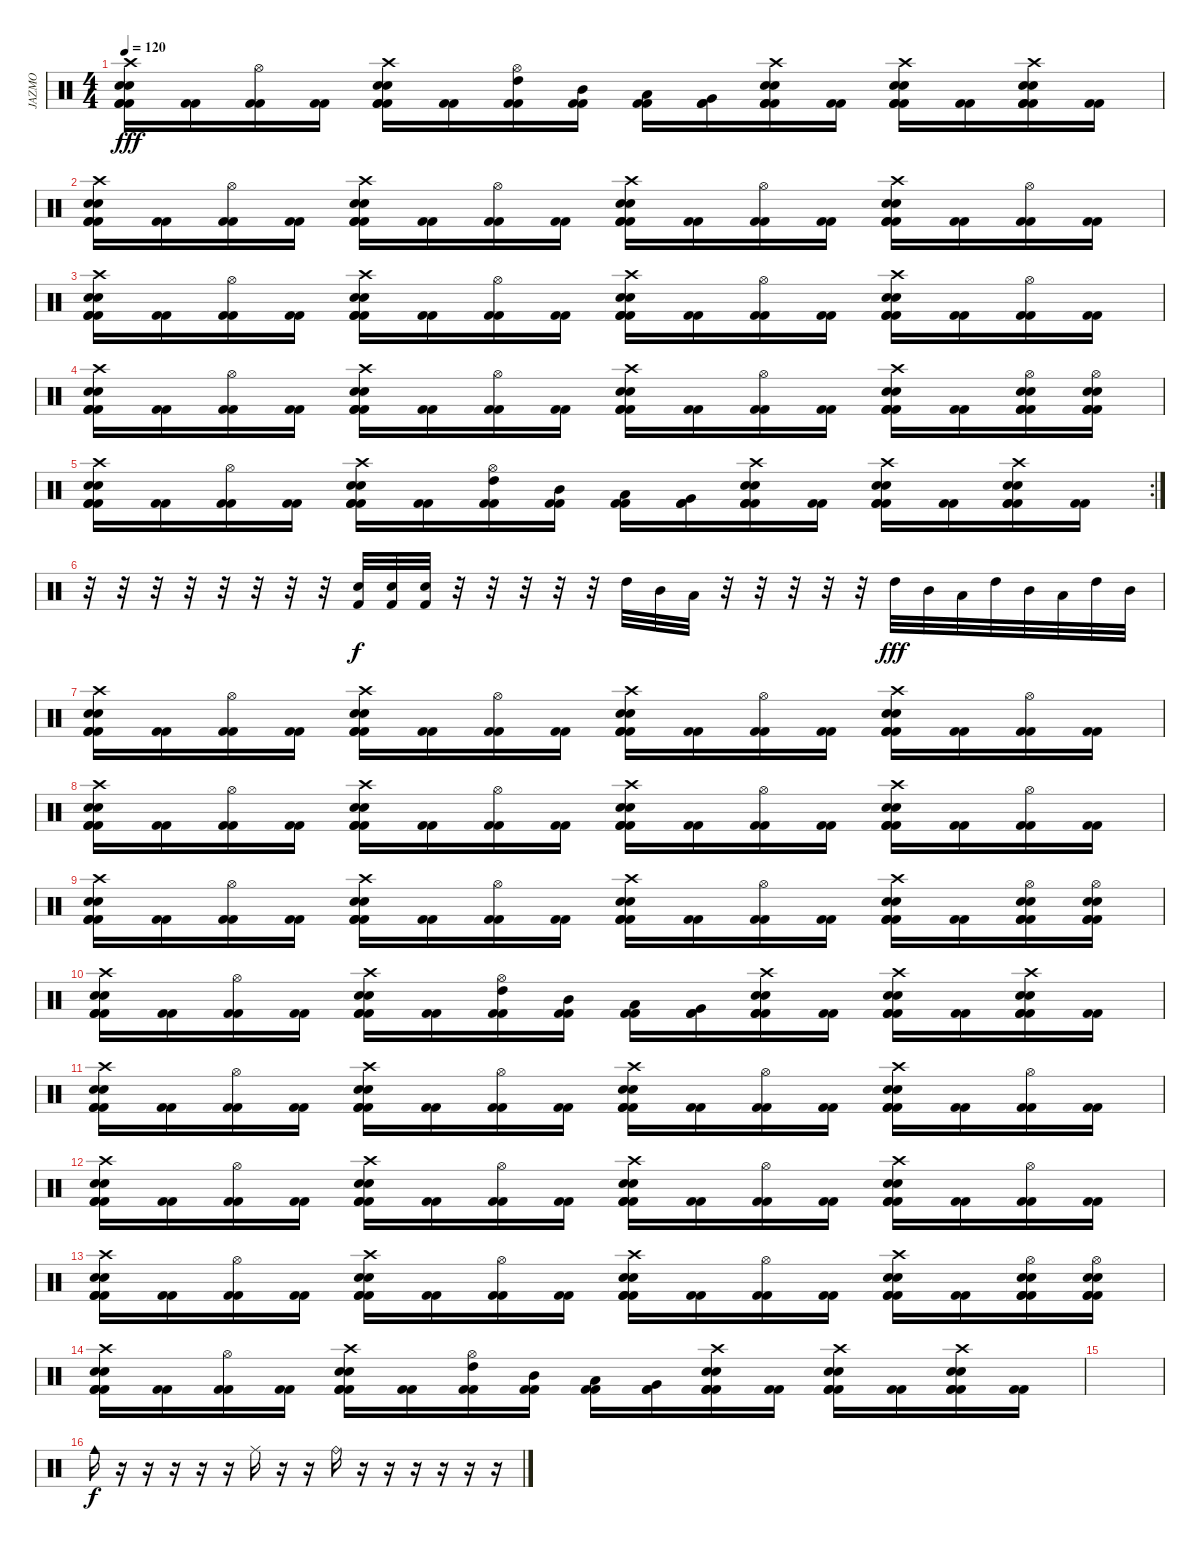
\track ("JAZMO" "JAZMO") {instrument percussion}
\staff {score}
\articulation defaults
\ts (4 4)
\tempo 120
\clef neutral
\ks c
("Electric Snare (hit)" "Kick (hit) 2" "Crash high (hit)" "Electric Snare (hit)" "Kick (hit) 2" "Kick (hit) 2").16{dy fff} ("Kick (hit) 2" "Kick (hit) 2").16 ("Hi-Hat (open)" "Kick (hit) 2" "Kick (hit) 2").16 ("Kick (hit) 2" "Kick (hit) 2").16 ("Electric Snare (hit)" "Kick (hit) 2" "Crash high (hit)" "Electric Snare (hit)" "Kick (hit) 2" "Kick (hit) 2").16 ("Kick (hit) 2" "Kick (hit) 2").16 ("High Tom (hit)" "Hi-Hat (open)" "Kick (hit) 2" "Kick (hit) 2").16 ("Mid Tom (hit)" "Kick (hit) 2" "Kick (hit) 2").16 ("Low Tom (hit)" "Kick (hit) 2" "Kick (hit) 2").16 ("Very Low Tom (hit)" "Kick (hit) 2" "Kick (hit) 2").16 ("Electric Snare (hit)" "Kick (hit) 2" "Crash high (hit)" "Electric Snare (hit)" "Kick (hit) 2" "Kick (hit) 2").16 ("Kick (hit) 2" "Kick (hit) 2").16 ("Electric Snare (hit)" "Kick (hit) 2" "Crash high (hit)" "Electric Snare (hit)" "Kick (hit) 2" "Kick (hit) 2").16 ("Kick (hit) 2" "Kick (hit) 2").16 ("Electric Snare (hit)" "Kick (hit) 2" "Crash high (hit)" "Electric Snare (hit)" "Kick (hit) 2" "Kick (hit) 2").16 ("Kick (hit) 2" "Kick (hit) 2").16 |
("Electric Snare (hit)" "Kick (hit) 2" "Crash high (hit)" "Electric Snare (hit)" "Kick (hit) 2" "Kick (hit) 2").16 ("Kick (hit) 2" "Kick (hit) 2").16 ("Hi-Hat (open)" "Kick (hit) 2" "Kick (hit) 2").16 ("Kick (hit) 2" "Kick (hit) 2").16 ("Electric Snare (hit)" "Kick (hit) 2" "Crash high (hit)" "Electric Snare (hit)" "Kick (hit) 2" "Kick (hit) 2").16 ("Kick (hit) 2" "Kick (hit) 2").16 ("Hi-Hat (open)" "Kick (hit) 2" "Kick (hit) 2").16 ("Kick (hit) 2" "Kick (hit) 2").16 ("Electric Snare (hit)" "Kick (hit) 2" "Crash high (hit)" "Electric Snare (hit)" "Kick (hit) 2" "Kick (hit) 2").16 ("Kick (hit) 2" "Kick (hit) 2").16 ("Hi-Hat (open)" "Kick (hit) 2" "Kick (hit) 2").16 ("Kick (hit) 2" "Kick (hit) 2").16 ("Electric Snare (hit)" "Kick (hit) 2" "Crash high (hit)" "Electric Snare (hit)" "Kick (hit) 2" "Kick (hit) 2").16 ("Kick (hit) 2" "Kick (hit) 2").16 ("Hi-Hat (open)" "Kick (hit) 2" "Kick (hit) 2").16 ("Kick (hit) 2" "Kick (hit) 2").16 |
("Electric Snare (hit)" "Kick (hit) 2" "Crash high (hit)" "Electric Snare (hit)" "Kick (hit) 2" "Kick (hit) 2").16 ("Kick (hit) 2" "Kick (hit) 2").16 ("Hi-Hat (open)" "Kick (hit) 2" "Kick (hit) 2").16 ("Kick (hit) 2" "Kick (hit) 2").16 ("Electric Snare (hit)" "Kick (hit) 2" "Crash high (hit)" "Electric Snare (hit)" "Kick (hit) 2" "Kick (hit) 2").16 ("Kick (hit) 2" "Kick (hit) 2").16 ("Hi-Hat (open)" "Kick (hit) 2" "Kick (hit) 2").16 ("Kick (hit) 2" "Kick (hit) 2").16 ("Electric Snare (hit)" "Kick (hit) 2" "Crash high (hit)" "Electric Snare (hit)" "Kick (hit) 2" "Kick (hit) 2").16 ("Kick (hit) 2" "Kick (hit) 2").16 ("Hi-Hat (open)" "Kick (hit) 2" "Kick (hit) 2").16 ("Kick (hit) 2" "Kick (hit) 2").16 ("Electric Snare (hit)" "Kick (hit) 2" "Crash high (hit)" "Electric Snare (hit)" "Kick (hit) 2" "Kick (hit) 2").16 ("Kick (hit) 2" "Kick (hit) 2").16 ("Hi-Hat (open)" "Kick (hit) 2" "Kick (hit) 2").16 ("Kick (hit) 2" "Kick (hit) 2").16 |
("Electric Snare (hit)" "Kick (hit) 2" "Crash high (hit)" "Electric Snare (hit)" "Kick (hit) 2" "Kick (hit) 2").16 ("Kick (hit) 2" "Kick (hit) 2").16 ("Hi-Hat (open)" "Kick (hit) 2" "Kick (hit) 2").16 ("Kick (hit) 2" "Kick (hit) 2").16 ("Electric Snare (hit)" "Kick (hit) 2" "Crash high (hit)" "Electric Snare (hit)" "Kick (hit) 2" "Kick (hit) 2").16 ("Kick (hit) 2" "Kick (hit) 2").16 ("Hi-Hat (open)" "Kick (hit) 2" "Kick (hit) 2").16 ("Kick (hit) 2" "Kick (hit) 2").16 ("Electric Snare (hit)" "Kick (hit) 2" "Crash high (hit)" "Electric Snare (hit)" "Kick (hit) 2" "Kick (hit) 2").16 ("Kick (hit) 2" "Kick (hit) 2").16 ("Hi-Hat (open)" "Kick (hit) 2" "Kick (hit) 2").16 ("Kick (hit) 2" "Kick (hit) 2").16 ("Electric Snare (hit)" "Kick (hit) 2" "Crash high (hit)" "Electric Snare (hit)" "Kick (hit) 2" "Kick (hit) 2").16 ("Kick (hit) 2" "Kick (hit) 2").16 ("Electric Snare (hit)" "Kick (hit) 2" "Hi-Hat (open)" "Electric Snare (hit)" "Kick (hit) 2" "Kick (hit) 2").16 ("Electric Snare (hit)" "Kick (hit) 2" "Hi-Hat (open)" "Electric Snare (hit)" "Kick (hit) 2" "Kick (hit) 2").16 |
\rc 2
("Electric Snare (hit)" "Kick (hit) 2" "Crash high (hit)" "Electric Snare (hit)" "Kick (hit) 2" "Kick (hit) 2").16 ("Kick (hit) 2" "Kick (hit) 2").16 ("Hi-Hat (open)" "Kick (hit) 2" "Kick (hit) 2").16 ("Kick (hit) 2" "Kick (hit) 2").16 ("Electric Snare (hit)" "Kick (hit) 2" "Crash high (hit)" "Electric Snare (hit)" "Kick (hit) 2" "Kick (hit) 2").16 ("Kick (hit) 2" "Kick (hit) 2").16 ("High Tom (hit)" "Hi-Hat (open)" "Kick (hit) 2" "Kick (hit) 2").16 ("Mid Tom (hit)" "Kick (hit) 2" "Kick (hit) 2").16 ("Low Tom (hit)" "Kick (hit) 2" "Kick (hit) 2").16 ("Very Low Tom (hit)" "Kick (hit) 2" "Kick (hit) 2").16 ("Electric Snare (hit)" "Kick (hit) 2" "Crash high (hit)" "Electric Snare (hit)" "Kick (hit) 2" "Kick (hit) 2").16 ("Kick (hit) 2" "Kick (hit) 2").16 ("Electric Snare (hit)" "Kick (hit) 2" "Crash high (hit)" "Electric Snare (hit)" "Kick (hit) 2" "Kick (hit) 2").16 ("Kick (hit) 2" "Kick (hit) 2").16 ("Electric Snare (hit)" "Kick (hit) 2" "Crash high (hit)" "Electric Snare (hit)" "Kick (hit) 2" "Kick (hit) 2").16 ("Kick (hit) 2" "Kick (hit) 2").16 |
r.32 r.32 r.32 r.32 r.32 r.32 r.32 r.32 ("Electric Snare (hit)" "Kick (hit) 2").32{dy f} ("Electric Snare (hit)" "Kick (hit) 2").32 ("Electric Snare (hit)" "Kick (hit) 2").32 r.32 r.32 r.32 r.32 r.32 "High Tom (hit)".32 "Mid Tom (hit)".32 "Low Tom (hit)".32 r.32 r.32 r.32 r.32 r.32 "High Tom (hit)".32{dy fff} "Mid Tom (hit)".32 "Low Tom (hit)".32 "High Tom (hit)".32 "Mid Tom (hit)".32 "Low Tom (hit)".32 "High Tom (hit)".32 "Mid Tom (hit)".32 |
("Electric Snare (hit)" "Kick (hit) 2" "Crash high (hit)" "Electric Snare (hit)" "Kick (hit) 2" "Kick (hit) 2").16 ("Kick (hit) 2" "Kick (hit) 2").16 ("Hi-Hat (open)" "Kick (hit) 2" "Kick (hit) 2").16 ("Kick (hit) 2" "Kick (hit) 2").16 ("Electric Snare (hit)" "Kick (hit) 2" "Crash high (hit)" "Electric Snare (hit)" "Kick (hit) 2" "Kick (hit) 2").16 ("Kick (hit) 2" "Kick (hit) 2").16 ("Hi-Hat (open)" "Kick (hit) 2" "Kick (hit) 2").16 ("Kick (hit) 2" "Kick (hit) 2").16 ("Electric Snare (hit)" "Kick (hit) 2" "Crash high (hit)" "Electric Snare (hit)" "Kick (hit) 2" "Kick (hit) 2").16 ("Kick (hit) 2" "Kick (hit) 2").16 ("Hi-Hat (open)" "Kick (hit) 2" "Kick (hit) 2").16 ("Kick (hit) 2" "Kick (hit) 2").16 ("Electric Snare (hit)" "Kick (hit) 2" "Crash high (hit)" "Electric Snare (hit)" "Kick (hit) 2" "Kick (hit) 2").16 ("Kick (hit) 2" "Kick (hit) 2").16 ("Hi-Hat (open)" "Kick (hit) 2" "Kick (hit) 2").16 ("Kick (hit) 2" "Kick (hit) 2").16 |
("Electric Snare (hit)" "Kick (hit) 2" "Crash high (hit)" "Electric Snare (hit)" "Kick (hit) 2" "Kick (hit) 2").16 ("Kick (hit) 2" "Kick (hit) 2").16 ("Hi-Hat (open)" "Kick (hit) 2" "Kick (hit) 2").16 ("Kick (hit) 2" "Kick (hit) 2").16 ("Electric Snare (hit)" "Kick (hit) 2" "Crash high (hit)" "Electric Snare (hit)" "Kick (hit) 2" "Kick (hit) 2").16 ("Kick (hit) 2" "Kick (hit) 2").16 ("Hi-Hat (open)" "Kick (hit) 2" "Kick (hit) 2").16 ("Kick (hit) 2" "Kick (hit) 2").16 ("Electric Snare (hit)" "Kick (hit) 2" "Crash high (hit)" "Electric Snare (hit)" "Kick (hit) 2" "Kick (hit) 2").16 ("Kick (hit) 2" "Kick (hit) 2").16 ("Hi-Hat (open)" "Kick (hit) 2" "Kick (hit) 2").16 ("Kick (hit) 2" "Kick (hit) 2").16 ("Electric Snare (hit)" "Kick (hit) 2" "Crash high (hit)" "Electric Snare (hit)" "Kick (hit) 2" "Kick (hit) 2").16 ("Kick (hit) 2" "Kick (hit) 2").16 ("Hi-Hat (open)" "Kick (hit) 2" "Kick (hit) 2").16 ("Kick (hit) 2" "Kick (hit) 2").16 |
("Electric Snare (hit)" "Kick (hit) 2" "Crash high (hit)" "Electric Snare (hit)" "Kick (hit) 2" "Kick (hit) 2").16 ("Kick (hit) 2" "Kick (hit) 2").16 ("Hi-Hat (open)" "Kick (hit) 2" "Kick (hit) 2").16 ("Kick (hit) 2" "Kick (hit) 2").16 ("Electric Snare (hit)" "Kick (hit) 2" "Crash high (hit)" "Electric Snare (hit)" "Kick (hit) 2" "Kick (hit) 2").16 ("Kick (hit) 2" "Kick (hit) 2").16 ("Hi-Hat (open)" "Kick (hit) 2" "Kick (hit) 2").16 ("Kick (hit) 2" "Kick (hit) 2").16 ("Electric Snare (hit)" "Kick (hit) 2" "Crash high (hit)" "Electric Snare (hit)" "Kick (hit) 2" "Kick (hit) 2").16 ("Kick (hit) 2" "Kick (hit) 2").16 ("Hi-Hat (open)" "Kick (hit) 2" "Kick (hit) 2").16 ("Kick (hit) 2" "Kick (hit) 2").16 ("Electric Snare (hit)" "Kick (hit) 2" "Crash high (hit)" "Electric Snare (hit)" "Kick (hit) 2" "Kick (hit) 2").16 ("Kick (hit) 2" "Kick (hit) 2").16 ("Electric Snare (hit)" "Kick (hit) 2" "Hi-Hat (open)" "Electric Snare (hit)" "Kick (hit) 2" "Kick (hit) 2").16 ("Electric Snare (hit)" "Kick (hit) 2" "Hi-Hat (open)" "Electric Snare (hit)" "Kick (hit) 2" "Kick (hit) 2").16 |
("Electric Snare (hit)" "Kick (hit) 2" "Crash high (hit)" "Electric Snare (hit)" "Kick (hit) 2" "Kick (hit) 2").16 ("Kick (hit) 2" "Kick (hit) 2").16 ("Hi-Hat (open)" "Kick (hit) 2" "Kick (hit) 2").16 ("Kick (hit) 2" "Kick (hit) 2").16 ("Electric Snare (hit)" "Kick (hit) 2" "Crash high (hit)" "Electric Snare (hit)" "Kick (hit) 2" "Kick (hit) 2").16 ("Kick (hit) 2" "Kick (hit) 2").16 ("High Tom (hit)" "Hi-Hat (open)" "Kick (hit) 2" "Kick (hit) 2").16 ("Mid Tom (hit)" "Kick (hit) 2" "Kick (hit) 2").16 ("Low Tom (hit)" "Kick (hit) 2" "Kick (hit) 2").16 ("Very Low Tom (hit)" "Kick (hit) 2" "Kick (hit) 2").16 ("Electric Snare (hit)" "Kick (hit) 2" "Crash high (hit)" "Electric Snare (hit)" "Kick (hit) 2" "Kick (hit) 2").16 ("Kick (hit) 2" "Kick (hit) 2").16 ("Electric Snare (hit)" "Kick (hit) 2" "Crash high (hit)" "Electric Snare (hit)" "Kick (hit) 2" "Kick (hit) 2").16 ("Kick (hit) 2" "Kick (hit) 2").16 ("Electric Snare (hit)" "Kick (hit) 2" "Crash high (hit)" "Electric Snare (hit)" "Kick (hit) 2" "Kick (hit) 2").16 ("Kick (hit) 2" "Kick (hit) 2").16 |
("Electric Snare (hit)" "Kick (hit) 2" "Crash high (hit)" "Electric Snare (hit)" "Kick (hit) 2" "Kick (hit) 2").16 ("Kick (hit) 2" "Kick (hit) 2").16 ("Hi-Hat (open)" "Kick (hit) 2" "Kick (hit) 2").16 ("Kick (hit) 2" "Kick (hit) 2").16 ("Electric Snare (hit)" "Kick (hit) 2" "Crash high (hit)" "Electric Snare (hit)" "Kick (hit) 2" "Kick (hit) 2").16 ("Kick (hit) 2" "Kick (hit) 2").16 ("Hi-Hat (open)" "Kick (hit) 2" "Kick (hit) 2").16 ("Kick (hit) 2" "Kick (hit) 2").16 ("Electric Snare (hit)" "Kick (hit) 2" "Crash high (hit)" "Electric Snare (hit)" "Kick (hit) 2" "Kick (hit) 2").16 ("Kick (hit) 2" "Kick (hit) 2").16 ("Hi-Hat (open)" "Kick (hit) 2" "Kick (hit) 2").16 ("Kick (hit) 2" "Kick (hit) 2").16 ("Electric Snare (hit)" "Kick (hit) 2" "Crash high (hit)" "Electric Snare (hit)" "Kick (hit) 2" "Kick (hit) 2").16 ("Kick (hit) 2" "Kick (hit) 2").16 ("Hi-Hat (open)" "Kick (hit) 2" "Kick (hit) 2").16 ("Kick (hit) 2" "Kick (hit) 2").16 |
("Electric Snare (hit)" "Kick (hit) 2" "Crash high (hit)" "Electric Snare (hit)" "Kick (hit) 2" "Kick (hit) 2").16 ("Kick (hit) 2" "Kick (hit) 2").16 ("Hi-Hat (open)" "Kick (hit) 2" "Kick (hit) 2").16 ("Kick (hit) 2" "Kick (hit) 2").16 ("Electric Snare (hit)" "Kick (hit) 2" "Crash high (hit)" "Electric Snare (hit)" "Kick (hit) 2" "Kick (hit) 2").16 ("Kick (hit) 2" "Kick (hit) 2").16 ("Hi-Hat (open)" "Kick (hit) 2" "Kick (hit) 2").16 ("Kick (hit) 2" "Kick (hit) 2").16 ("Electric Snare (hit)" "Kick (hit) 2" "Crash high (hit)" "Electric Snare (hit)" "Kick (hit) 2" "Kick (hit) 2").16 ("Kick (hit) 2" "Kick (hit) 2").16 ("Hi-Hat (open)" "Kick (hit) 2" "Kick (hit) 2").16 ("Kick (hit) 2" "Kick (hit) 2").16 ("Electric Snare (hit)" "Kick (hit) 2" "Crash high (hit)" "Electric Snare (hit)" "Kick (hit) 2" "Kick (hit) 2").16 ("Kick (hit) 2" "Kick (hit) 2").16 ("Hi-Hat (open)" "Kick (hit) 2" "Kick (hit) 2").16 ("Kick (hit) 2" "Kick (hit) 2").16 |
("Electric Snare (hit)" "Kick (hit) 2" "Crash high (hit)" "Electric Snare (hit)" "Kick (hit) 2" "Kick (hit) 2").16 ("Kick (hit) 2" "Kick (hit) 2").16 ("Hi-Hat (open)" "Kick (hit) 2" "Kick (hit) 2").16 ("Kick (hit) 2" "Kick (hit) 2").16 ("Electric Snare (hit)" "Kick (hit) 2" "Crash high (hit)" "Electric Snare (hit)" "Kick (hit) 2" "Kick (hit) 2").16 ("Kick (hit) 2" "Kick (hit) 2").16 ("Hi-Hat (open)" "Kick (hit) 2" "Kick (hit) 2").16 ("Kick (hit) 2" "Kick (hit) 2").16 ("Electric Snare (hit)" "Kick (hit) 2" "Crash high (hit)" "Electric Snare (hit)" "Kick (hit) 2" "Kick (hit) 2").16 ("Kick (hit) 2" "Kick (hit) 2").16 ("Hi-Hat (open)" "Kick (hit) 2" "Kick (hit) 2").16 ("Kick (hit) 2" "Kick (hit) 2").16 ("Electric Snare (hit)" "Kick (hit) 2" "Crash high (hit)" "Electric Snare (hit)" "Kick (hit) 2" "Kick (hit) 2").16 ("Kick (hit) 2" "Kick (hit) 2").16 ("Electric Snare (hit)" "Kick (hit) 2" "Hi-Hat (open)" "Electric Snare (hit)" "Kick (hit) 2" "Kick (hit) 2").16 ("Electric Snare (hit)" "Kick (hit) 2" "Hi-Hat (open)" "Electric Snare (hit)" "Kick (hit) 2" "Kick (hit) 2").16 |
("Electric Snare (hit)" "Kick (hit) 2" "Crash high (hit)" "Electric Snare (hit)" "Kick (hit) 2" "Kick (hit) 2").16 ("Kick (hit) 2" "Kick (hit) 2").16 ("Hi-Hat (open)" "Kick (hit) 2" "Kick (hit) 2").16 ("Kick (hit) 2" "Kick (hit) 2").16 ("Electric Snare (hit)" "Kick (hit) 2" "Crash high (hit)" "Electric Snare (hit)" "Kick (hit) 2" "Kick (hit) 2").16 ("Kick (hit) 2" "Kick (hit) 2").16 ("High Tom (hit)" "Hi-Hat (open)" "Kick (hit) 2" "Kick (hit) 2").16 ("Mid Tom (hit)" "Kick (hit) 2" "Kick (hit) 2").16 ("Low Tom (hit)" "Kick (hit) 2" "Kick (hit) 2").16 ("Very Low Tom (hit)" "Kick (hit) 2" "Kick (hit) 2").16 ("Electric Snare (hit)" "Kick (hit) 2" "Crash high (hit)" "Electric Snare (hit)" "Kick (hit) 2" "Kick (hit) 2").16 ("Kick (hit) 2" "Kick (hit) 2").16 ("Electric Snare (hit)" "Kick (hit) 2" "Crash high (hit)" "Electric Snare (hit)" "Kick (hit) 2" "Kick (hit) 2").16 ("Kick (hit) 2" "Kick (hit) 2").16 ("Electric Snare (hit)" "Kick (hit) 2" "Crash high (hit)" "Electric Snare (hit)" "Kick (hit) 2" "Kick (hit) 2").16 ("Kick (hit) 2" "Kick (hit) 2").16 |
|
"Cowbell medium (hit)".16{dy f} r.16 r.16 r.16 r.16 r.16 "Ride (middle)".16 r.16 r.16 "Ride (bell)".16 r.16 r.16 r.16 r.16 r.16 r.16
